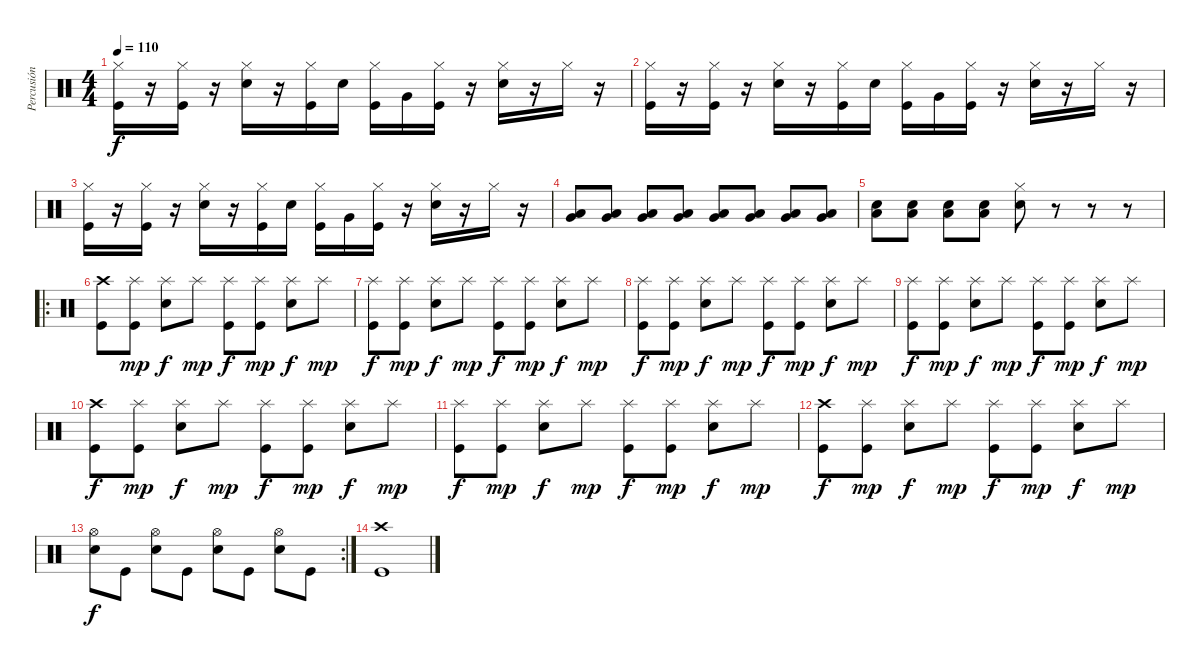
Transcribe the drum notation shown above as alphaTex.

\track ("Percusión" "Percusión") {instrument percussion}
\staff {score}
\articulation defaults
\ts (4 4)
\tempo 110
\clef neutral
\ks c
("Hi-Hat (closed)" "Kick (hit)").16{dy f} r.16 ("Hi-Hat (closed)" "Kick (hit)").16 r.16 ("Hi-Hat (closed)" "Electric Snare (hit)").16 r.16 ("Hi-Hat (closed)" "Kick (hit)").16 "Electric Snare (hit)".16 ("Hi-Hat (closed)" "Kick (hit)").16 "Very Low Tom (hit)".16 ("Hi-Hat (closed)" "Kick (hit)").16 r.16 ("Hi-Hat (closed)" "Electric Snare (hit)").16 r.16 "Hi-Hat (closed)".16 r.16 |
("Hi-Hat (closed)" "Kick (hit)").16 r.16 ("Hi-Hat (closed)" "Kick (hit)").16 r.16 ("Hi-Hat (closed)" "Electric Snare (hit)").16 r.16 ("Hi-Hat (closed)" "Kick (hit)").16 "Electric Snare (hit)".16 ("Hi-Hat (closed)" "Kick (hit)").16 "Very Low Tom (hit)".16 ("Hi-Hat (closed)" "Kick (hit)").16 r.16 ("Hi-Hat (closed)" "Electric Snare (hit)").16 r.16 "Hi-Hat (closed)".16 r.16 |
("Hi-Hat (closed)" "Kick (hit)").16 r.16 ("Hi-Hat (closed)" "Kick (hit)").16 r.16 ("Hi-Hat (closed)" "Electric Snare (hit)").16 r.16 ("Hi-Hat (closed)" "Kick (hit)").16 "Electric Snare (hit)".16 ("Hi-Hat (closed)" "Kick (hit)").16 "Very Low Tom (hit)".16 ("Hi-Hat (closed)" "Kick (hit)").16 r.16 ("Hi-Hat (closed)" "Electric Snare (hit)").16 r.16 "Hi-Hat (closed)".16 r.16 |
("Very Low Tom (hit)" "Low Floor Tom (hit)").8 ("Very Low Tom (hit)" "Low Floor Tom (hit)").8 ("Very Low Tom (hit)" "Low Floor Tom (hit)").8 ("Very Low Tom (hit)" "Low Floor Tom (hit)").8 ("Very Low Tom (hit)" "Low Floor Tom (hit)").8 ("Very Low Tom (hit)" "Low Floor Tom (hit)").8 ("Very Low Tom (hit)" "Low Floor Tom (hit)").8 ("Very Low Tom (hit)" "Low Floor Tom (hit)").8 |
("Electric Snare (hit)" "Low Floor Tom (hit)").8 ("Electric Snare (hit)" "Low Floor Tom (hit)").8 ("Electric Snare (hit)" "Low Floor Tom (hit)").8 ("Electric Snare (hit)" "Low Floor Tom (hit)").8 ("Hi-Hat (closed)" "Electric Snare (hit)").8 r.8 r.8 r.8 |
\ro
("Crash high (hit)" "Kick (hit)").8 ("Splash (hit)" "Kick (hit)").8{dy mp} ("Splash (hit)" "Electric Snare (hit)").8{dy f} "Splash (hit)".8{dy mp} ("Splash (hit)" "Kick (hit)").8{dy f} ("Splash (hit)" "Kick (hit)").8{dy mp} ("Splash (hit)" "Electric Snare (hit)").8{dy f} "Splash (hit)".8{dy mp} |
("Splash (hit)" "Kick (hit)").8{dy f} ("Splash (hit)" "Kick (hit)").8{dy mp} ("Splash (hit)" "Electric Snare (hit)").8{dy f} "Splash (hit)".8{dy mp} ("Splash (hit)" "Kick (hit)").8{dy f} ("Splash (hit)" "Kick (hit)").8{dy mp} ("Splash (hit)" "Electric Snare (hit)").8{dy f} "Splash (hit)".8{dy mp} |
("Splash (hit)" "Kick (hit)").8{dy f} ("Splash (hit)" "Kick (hit)").8{dy mp} ("Splash (hit)" "Electric Snare (hit)").8{dy f} "Splash (hit)".8{dy mp} ("Splash (hit)" "Kick (hit)").8{dy f} ("Splash (hit)" "Kick (hit)").8{dy mp} ("Splash (hit)" "Electric Snare (hit)").8{dy f} "Splash (hit)".8{dy mp} |
("Splash (hit)" "Kick (hit)").8{dy f} ("Splash (hit)" "Kick (hit)").8{dy mp} ("Splash (hit)" "Electric Snare (hit)").8{dy f} "Splash (hit)".8{dy mp} ("Splash (hit)" "Kick (hit)").8{dy f} ("Splash (hit)" "Kick (hit)").8{dy mp} ("Splash (hit)" "Electric Snare (hit)").8{dy f} "Splash (hit)".8{dy mp} |
("Crash high (hit)" "Kick (hit)").8{dy f} ("Splash (hit)" "Kick (hit)").8{dy mp} ("Splash (hit)" "Electric Snare (hit)").8{dy f} "Splash (hit)".8{dy mp} ("Splash (hit)" "Kick (hit)").8{dy f} ("Splash (hit)" "Kick (hit)").8{dy mp} ("Splash (hit)" "Electric Snare (hit)").8{dy f} "Splash (hit)".8{dy mp} |
("Splash (hit)" "Kick (hit)").8{dy f} ("Splash (hit)" "Kick (hit)").8{dy mp} ("Splash (hit)" "Electric Snare (hit)").8{dy f} "Splash (hit)".8{dy mp} ("Splash (hit)" "Kick (hit)").8{dy f} ("Splash (hit)" "Kick (hit)").8{dy mp} ("Splash (hit)" "Electric Snare (hit)").8{dy f} "Splash (hit)".8{dy mp} |
("Crash high (hit)" "Kick (hit)").8{dy f} ("Splash (hit)" "Kick (hit)").8{dy mp} ("Splash (hit)" "Electric Snare (hit)").8{dy f} "Splash (hit)".8{dy mp} ("Splash (hit)" "Kick (hit)").8{dy f} ("Splash (hit)" "Kick (hit)").8{dy mp} ("Splash (hit)" "Electric Snare (hit)").8{dy f} "Splash (hit)".8{dy mp} |
\rc 2
("Hi-Hat (open)" "Electric Snare (hit)").8{dy f} "Kick (hit)".8 ("Hi-Hat (open)" "Electric Snare (hit)").8 "Kick (hit)".8 ("Hi-Hat (open)" "Electric Snare (hit)").8 "Kick (hit)".8 ("Hi-Hat (open)" "Electric Snare (hit)").8 "Kick (hit)".8 |
("Crash high (hit)" "Kick (hit)").1
